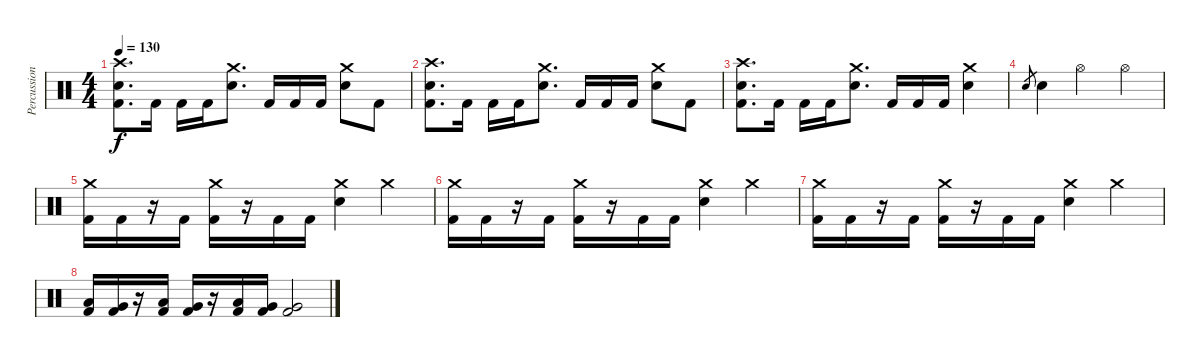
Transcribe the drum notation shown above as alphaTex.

\track ("Percussion" "Percussion") {instrument percussion}
\staff {score}
\articulation defaults
\ts (4 4)
\tempo 130
\clef neutral
\ks c
("Crash high (hit)" "Electric Snare (hit)" "Kick (hit) 2").8{d dy f} "Kick (hit) 2".16 "Kick (hit) 2".16 "Kick (hit) 2".16 ("Crash medium (hit)" "Electric Snare (hit)").8{d} "Kick (hit) 2".16 "Kick (hit) 2".16 "Kick (hit) 2".16 ("Crash medium (hit)" "Electric Snare (hit)").8 "Kick (hit) 2".8 |
("Crash high (hit)" "Electric Snare (hit)" "Kick (hit) 2").8{d} "Kick (hit) 2".16 "Kick (hit) 2".16 "Kick (hit) 2".16 ("Crash medium (hit)" "Electric Snare (hit)").8{d} "Kick (hit) 2".16 "Kick (hit) 2".16 "Kick (hit) 2".16 ("Crash medium (hit)" "Electric Snare (hit)").8 "Kick (hit) 2".8 |
("Crash high (hit)" "Electric Snare (hit)" "Kick (hit) 2").8{d} "Kick (hit) 2".16 "Kick (hit) 2".16 "Kick (hit) 2".16 ("Crash medium (hit)" "Electric Snare (hit)").8{d} "Kick (hit) 2".16 "Kick (hit) 2".16 "Kick (hit) 2".16 ("Crash medium (hit)" "Electric Snare (hit)").4 |
"Electric Snare (hit)".8{gr} "Electric Snare (hit)".4 "Hi-Hat (open)".2 "Hi-Hat (open)".4 |
("Crash medium (hit)" "Kick (hit) 2").16 "Kick (hit) 2".16 r.16 "Kick (hit) 2".16 ("Crash medium (hit)" "Kick (hit) 2").16 r.16 "Kick (hit) 2".16 "Kick (hit) 2".16 ("Crash medium (hit)" "Electric Snare (hit)").4 "Crash medium (hit)".4 |
("Crash medium (hit)" "Kick (hit) 2").16 "Kick (hit) 2".16 r.16 "Kick (hit) 2".16 ("Crash medium (hit)" "Kick (hit) 2").16 r.16 "Kick (hit) 2".16 "Kick (hit) 2".16 ("Crash medium (hit)" "Electric Snare (hit)").4 "Crash medium (hit)".4 |
("Crash medium (hit)" "Kick (hit) 2").16 "Kick (hit) 2".16 r.16 "Kick (hit) 2".16 ("Crash medium (hit)" "Kick (hit) 2").16 r.16 "Kick (hit) 2".16 "Kick (hit) 2".16 ("Crash medium (hit)" "Electric Snare (hit)").4 "Crash medium (hit)".4 |
("Low Tom (hit)" "Kick (hit) 2").16 ("Very Low Tom (hit)" "Kick (hit) 2").16 r.16 ("Low Tom (hit)" "Kick (hit) 2").16 ("Very Low Tom (hit)" "Kick (hit) 2").16 r.16 ("Low Tom (hit)" "Kick (hit) 2").16 ("Very Low Tom (hit)" "Kick (hit) 2").16 ("Very Low Tom (hit)" "Kick (hit) 2").2
